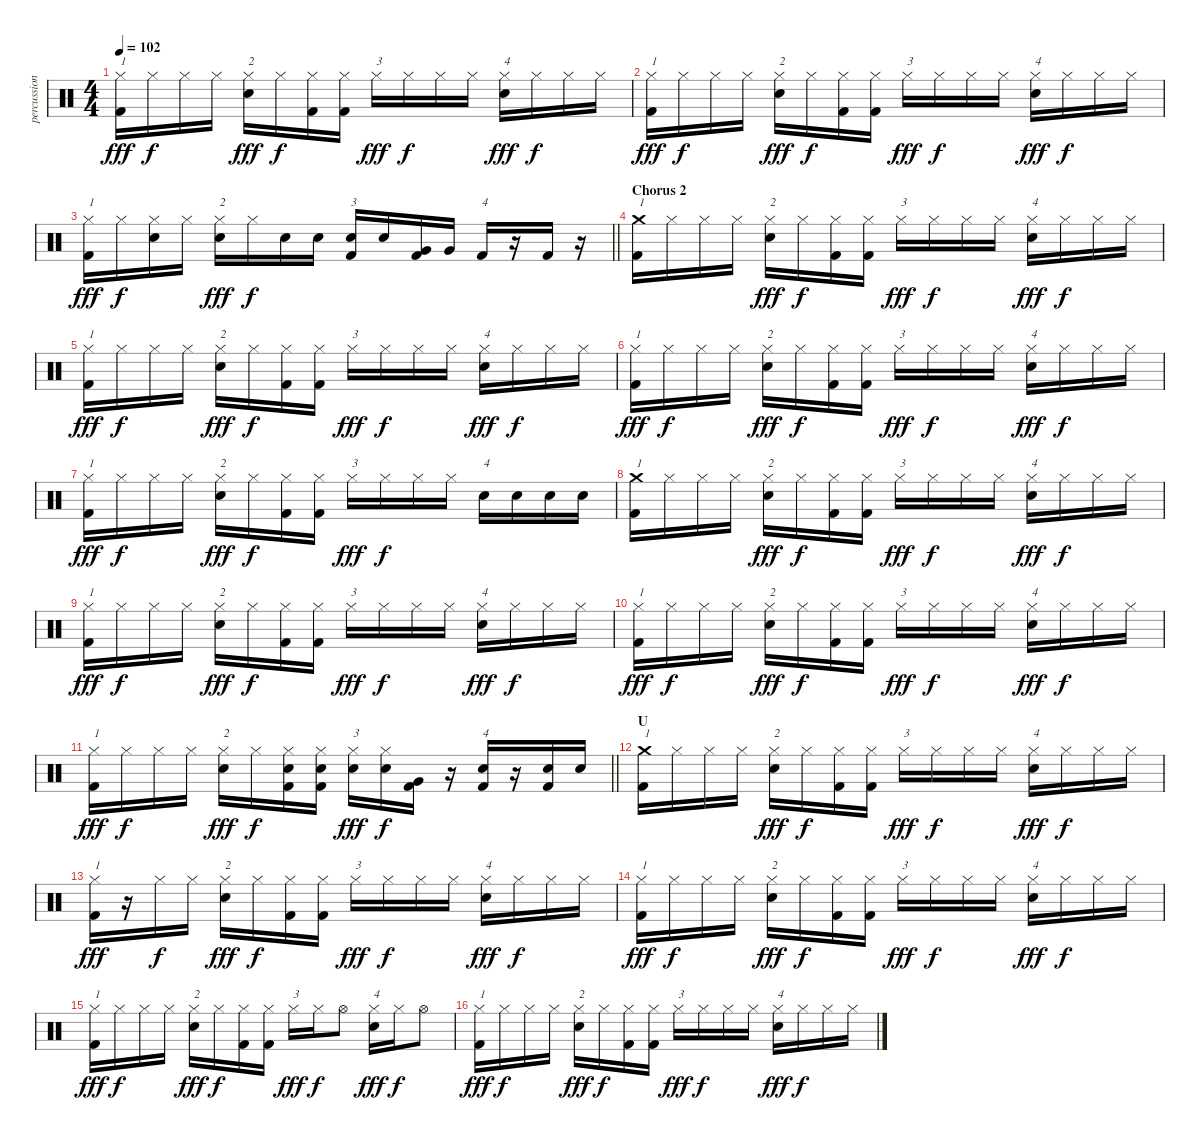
\track ("percussion" "percussion") {instrument percussion}
\staff {score}
\articulation defaults
\ts (4 4)
\tempo 102
\clef neutral
\ks c
("Hi-Hat (closed)" "Kick (hit) 2").16{txt "1" dy fff} "Hi-Hat (closed)".16{dy f} "Hi-Hat (closed)".16 "Hi-Hat (closed)".16 ("Snare (hit) 2" "Hi-Hat (closed)").16{txt "2" dy fff} "Hi-Hat (closed)".16{dy f} ("Hi-Hat (closed)" "Kick (hit) 2").16 ("Hi-Hat (closed)" "Kick (hit) 2").16 "Hi-Hat (closed)".16{txt "3" dy fff} "Hi-Hat (closed)".16{dy f} "Hi-Hat (closed)".16 "Hi-Hat (closed)".16 ("Snare (hit) 2" "Hi-Hat (closed)").16{txt "4" dy fff} "Hi-Hat (closed)".16{dy f} "Hi-Hat (closed)".16 "Hi-Hat (closed)".16 |
("Hi-Hat (closed)" "Kick (hit) 2").16{txt "1" dy fff} "Hi-Hat (closed)".16{dy f} "Hi-Hat (closed)".16 "Hi-Hat (closed)".16 ("Snare (hit) 2" "Hi-Hat (closed)").16{txt "2" dy fff} "Hi-Hat (closed)".16{dy f} ("Hi-Hat (closed)" "Kick (hit) 2").16 ("Hi-Hat (closed)" "Kick (hit) 2").16 "Hi-Hat (closed)".16{txt "3" dy fff} "Hi-Hat (closed)".16{dy f} "Hi-Hat (closed)".16 "Hi-Hat (closed)".16 ("Snare (hit) 2" "Hi-Hat (closed)").16{txt "4" dy fff} "Hi-Hat (closed)".16{dy f} "Hi-Hat (closed)".16 "Hi-Hat (closed)".16 |
\barLineRight lightlight
("Hi-Hat (closed)" "Kick (hit) 2").16{txt "1" dy fff} "Hi-Hat (closed)".16{dy f} ("Snare (hit) 2" "Hi-Hat (closed)").16 "Hi-Hat (closed)".16 ("Snare (hit) 2" "Hi-Hat (closed)").16{txt "2" dy fff} "Hi-Hat (closed)".16{dy f} "Snare (hit) 2".16 "Snare (hit) 2".16 ("Snare (hit) 2" "Kick (hit) 2").16{txt "3"} "Snare (hit) 2".16 ("Very Low Tom (hit)" "Kick (hit) 2").16 "Very Low Tom (hit)".16 "Kick (hit) 2".16{txt "4"} r.16 "Kick (hit) 2".16 r.16 |
\section ("" "Chorus 2")
("Crash medium (hit)" "Kick (hit) 2").16{txt "1"} "Hi-Hat (closed)".16 "Hi-Hat (closed)".16 "Hi-Hat (closed)".16 ("Snare (hit) 2" "Hi-Hat (closed)").16{txt "2" dy fff} "Hi-Hat (closed)".16{dy f} ("Hi-Hat (closed)" "Kick (hit) 2").16 ("Hi-Hat (closed)" "Kick (hit) 2").16 "Hi-Hat (closed)".16{txt "3" dy fff} "Hi-Hat (closed)".16{dy f} "Hi-Hat (closed)".16 "Hi-Hat (closed)".16 ("Snare (hit) 2" "Hi-Hat (closed)").16{txt "4" dy fff} "Hi-Hat (closed)".16{dy f} "Hi-Hat (closed)".16 "Hi-Hat (closed)".16 |
("Hi-Hat (closed)" "Kick (hit) 2").16{txt "1" dy fff} "Hi-Hat (closed)".16{dy f} "Hi-Hat (closed)".16 "Hi-Hat (closed)".16 ("Snare (hit) 2" "Hi-Hat (closed)").16{txt "2" dy fff} "Hi-Hat (closed)".16{dy f} ("Hi-Hat (closed)" "Kick (hit) 2").16 ("Hi-Hat (closed)" "Kick (hit) 2").16 "Hi-Hat (closed)".16{txt "3" dy fff} "Hi-Hat (closed)".16{dy f} "Hi-Hat (closed)".16 "Hi-Hat (closed)".16 ("Snare (hit) 2" "Hi-Hat (closed)").16{txt "4" dy fff} "Hi-Hat (closed)".16{dy f} "Hi-Hat (closed)".16 "Hi-Hat (closed)".16 |
("Hi-Hat (closed)" "Kick (hit) 2").16{txt "1" dy fff} "Hi-Hat (closed)".16{dy f} "Hi-Hat (closed)".16 "Hi-Hat (closed)".16 ("Snare (hit) 2" "Hi-Hat (closed)").16{txt "2" dy fff} "Hi-Hat (closed)".16{dy f} ("Hi-Hat (closed)" "Kick (hit) 2").16 ("Hi-Hat (closed)" "Kick (hit) 2").16 "Hi-Hat (closed)".16{txt "3" dy fff} "Hi-Hat (closed)".16{dy f} "Hi-Hat (closed)".16 "Hi-Hat (closed)".16 ("Snare (hit) 2" "Hi-Hat (closed)").16{txt "4" dy fff} "Hi-Hat (closed)".16{dy f} "Hi-Hat (closed)".16 "Hi-Hat (closed)".16 |
("Hi-Hat (closed)" "Kick (hit) 2").16{txt "1" dy fff} "Hi-Hat (closed)".16{dy f} "Hi-Hat (closed)".16 "Hi-Hat (closed)".16 ("Snare (hit) 2" "Hi-Hat (closed)").16{txt "2" dy fff} "Hi-Hat (closed)".16{dy f} ("Hi-Hat (closed)" "Kick (hit) 2").16 ("Hi-Hat (closed)" "Kick (hit) 2").16 "Hi-Hat (closed)".16{txt "3" dy fff} "Hi-Hat (closed)".16{dy f} "Hi-Hat (closed)".16 "Hi-Hat (closed)".16 "Snare (hit) 2".16{txt "4"} "Snare (hit) 2".16 "Snare (hit) 2".16 "Snare (hit) 2".16 |
("Crash medium (hit)" "Kick (hit) 2").16{txt "1"} "Hi-Hat (closed)".16 "Hi-Hat (closed)".16 "Hi-Hat (closed)".16 ("Snare (hit) 2" "Hi-Hat (closed)").16{txt "2" dy fff} "Hi-Hat (closed)".16{dy f} ("Hi-Hat (closed)" "Kick (hit) 2").16 ("Hi-Hat (closed)" "Kick (hit) 2").16 "Hi-Hat (closed)".16{txt "3" dy fff} "Hi-Hat (closed)".16{dy f} "Hi-Hat (closed)".16 "Hi-Hat (closed)".16 ("Snare (hit) 2" "Hi-Hat (closed)").16{txt "4" dy fff} "Hi-Hat (closed)".16{dy f} "Hi-Hat (closed)".16 "Hi-Hat (closed)".16 |
("Hi-Hat (closed)" "Kick (hit) 2").16{txt "1" dy fff} "Hi-Hat (closed)".16{dy f} "Hi-Hat (closed)".16 "Hi-Hat (closed)".16 ("Snare (hit) 2" "Hi-Hat (closed)").16{txt "2" dy fff} "Hi-Hat (closed)".16{dy f} ("Hi-Hat (closed)" "Kick (hit) 2").16 ("Hi-Hat (closed)" "Kick (hit) 2").16 "Hi-Hat (closed)".16{txt "3" dy fff} "Hi-Hat (closed)".16{dy f} "Hi-Hat (closed)".16 "Hi-Hat (closed)".16 ("Snare (hit) 2" "Hi-Hat (closed)").16{txt "4" dy fff} "Hi-Hat (closed)".16{dy f} "Hi-Hat (closed)".16 "Hi-Hat (closed)".16 |
("Hi-Hat (closed)" "Kick (hit) 2").16{txt "1" dy fff} "Hi-Hat (closed)".16{dy f} "Hi-Hat (closed)".16 "Hi-Hat (closed)".16 ("Snare (hit) 2" "Hi-Hat (closed)").16{txt "2" dy fff} "Hi-Hat (closed)".16{dy f} ("Hi-Hat (closed)" "Kick (hit) 2").16 ("Hi-Hat (closed)" "Kick (hit) 2").16 "Hi-Hat (closed)".16{txt "3" dy fff} "Hi-Hat (closed)".16{dy f} "Hi-Hat (closed)".16 "Hi-Hat (closed)".16 ("Snare (hit) 2" "Hi-Hat (closed)").16{txt "4" dy fff} "Hi-Hat (closed)".16{dy f} "Hi-Hat (closed)".16 "Hi-Hat (closed)".16 |
\barLineRight lightlight
("Hi-Hat (closed)" "Kick (hit) 2").16{txt "1" dy fff} "Hi-Hat (closed)".16{dy f} "Hi-Hat (closed)".16 "Hi-Hat (closed)".16 ("Snare (hit) 2" "Hi-Hat (closed)").16{txt "2" dy fff} "Hi-Hat (closed)".16{dy f} ("Snare (hit) 2" "Hi-Hat (closed)" "Kick (hit) 2").16 ("Snare (hit) 2" "Hi-Hat (closed)" "Kick (hit) 2").16 ("Snare (hit) 2" "Hi-Hat (closed)").16{txt "3" dy fff} ("Snare (hit) 2" "Hi-Hat (closed)").16{dy f} ("Very Low Tom (hit)" "Kick (hit) 2").16 r.16 ("Snare (hit) 2" "Kick (hit) 2").16{txt "4"} r.16 ("Snare (hit) 2" "Kick (hit) 2").16 "Snare (hit) 2".16 |
\section ("" "U")
("Crash medium (hit)" "Kick (hit) 2").16{txt "1"} "Hi-Hat (closed)".16 "Hi-Hat (closed)".16 "Hi-Hat (closed)".16 ("Snare (hit) 2" "Hi-Hat (closed)").16{txt "2" dy fff} "Hi-Hat (closed)".16{dy f} ("Hi-Hat (closed)" "Kick (hit) 2").16 ("Hi-Hat (closed)" "Kick (hit) 2").16 "Hi-Hat (closed)".16{txt "3" dy fff} "Hi-Hat (closed)".16{dy f} "Hi-Hat (closed)".16 "Hi-Hat (closed)".16 ("Snare (hit) 2" "Hi-Hat (closed)").16{txt "4" dy fff} "Hi-Hat (closed)".16{dy f} "Hi-Hat (closed)".16 "Hi-Hat (closed)".16 |
("Hi-Hat (closed)" "Kick (hit) 2").16{txt "1" dy fff} r.16 "Hi-Hat (closed)".16{dy f} "Hi-Hat (closed)".16 ("Snare (hit) 2" "Hi-Hat (closed)").16{txt "2" dy fff} "Hi-Hat (closed)".16{dy f} ("Hi-Hat (closed)" "Kick (hit) 2").16 ("Hi-Hat (closed)" "Kick (hit) 2").16 "Hi-Hat (closed)".16{txt "3" dy fff} "Hi-Hat (closed)".16{dy f} "Hi-Hat (closed)".16 "Hi-Hat (closed)".16 ("Snare (hit) 2" "Hi-Hat (closed)").16{txt "4" dy fff} "Hi-Hat (closed)".16{dy f} "Hi-Hat (closed)".16 "Hi-Hat (closed)".16 |
("Hi-Hat (closed)" "Kick (hit) 2").16{txt "1" dy fff} "Hi-Hat (closed)".16{dy f} "Hi-Hat (closed)".16 "Hi-Hat (closed)".16 ("Snare (hit) 2" "Hi-Hat (closed)").16{txt "2" dy fff} "Hi-Hat (closed)".16{dy f} ("Hi-Hat (closed)" "Kick (hit) 2").16 ("Hi-Hat (closed)" "Kick (hit) 2").16 "Hi-Hat (closed)".16{txt "3" dy fff} "Hi-Hat (closed)".16{dy f} "Hi-Hat (closed)".16 "Hi-Hat (closed)".16 ("Snare (hit) 2" "Hi-Hat (closed)").16{txt "4" dy fff} "Hi-Hat (closed)".16{dy f} "Hi-Hat (closed)".16 "Hi-Hat (closed)".16 |
("Hi-Hat (closed)" "Kick (hit) 2").16{txt "1" dy fff} "Hi-Hat (closed)".16{dy f} "Hi-Hat (closed)".16 "Hi-Hat (closed)".16 ("Snare (hit) 2" "Hi-Hat (closed)").16{txt "2" dy fff} "Hi-Hat (closed)".16{dy f} ("Hi-Hat (closed)" "Kick (hit) 2").16 ("Hi-Hat (closed)" "Kick (hit) 2").16 "Hi-Hat (closed)".16{txt "3" dy fff} "Hi-Hat (closed)".16{dy f} "Hi-Hat (open)".8 ("Snare (hit) 2" "Hi-Hat (closed)").16{txt "4" dy fff} "Hi-Hat (closed)".16{dy f} "Hi-Hat (open)".8 |
("Hi-Hat (closed)" "Kick (hit) 2").16{txt "1" dy fff} "Hi-Hat (closed)".16{dy f} "Hi-Hat (closed)".16 "Hi-Hat (closed)".16 ("Snare (hit) 2" "Hi-Hat (closed)").16{txt "2" dy fff} "Hi-Hat (closed)".16{dy f} ("Hi-Hat (closed)" "Kick (hit) 2").16 ("Hi-Hat (closed)" "Kick (hit) 2").16 "Hi-Hat (closed)".16{txt "3" dy fff} "Hi-Hat (closed)".16{dy f} "Hi-Hat (closed)".16 "Hi-Hat (closed)".16 ("Snare (hit) 2" "Hi-Hat (closed)").16{txt "4" dy fff} "Hi-Hat (closed)".16{dy f} "Hi-Hat (closed)".16 "Hi-Hat (closed)".16
